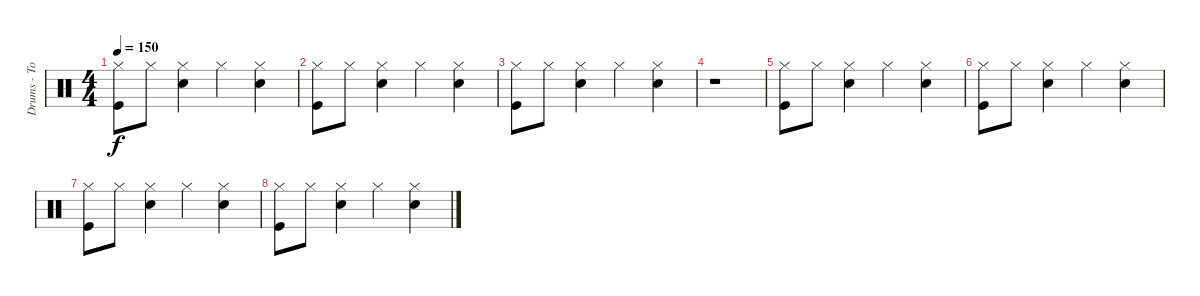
\track ("Drums - Tobi Häuser" "Drums - To") {instrument percussion}
\staff {score}
\articulation defaults
\ts (4 4)
\tempo 150
\clef neutral
\ks c
("Hi-Hat (closed)" "Kick (hit)").8{dy f} "Hi-Hat (closed)".8 ("Hi-Hat (closed)" "Snare (hit) 2").4 "Hi-Hat (closed)".4 ("Hi-Hat (closed)" "Snare (hit) 2").4 |
("Hi-Hat (closed)" "Kick (hit)").8 "Hi-Hat (closed)".8 ("Hi-Hat (closed)" "Snare (hit) 2").4 "Hi-Hat (closed)".4 ("Hi-Hat (closed)" "Snare (hit) 2").4 |
("Hi-Hat (closed)" "Kick (hit)").8 "Hi-Hat (closed)".8 ("Hi-Hat (closed)" "Snare (hit) 2").4 "Hi-Hat (closed)".4 ("Hi-Hat (closed)" "Snare (hit) 2").4 |
r.1 |
("Hi-Hat (closed)" "Kick (hit)").8 "Hi-Hat (closed)".8 ("Hi-Hat (closed)" "Snare (hit) 2").4 "Hi-Hat (closed)".4 ("Hi-Hat (closed)" "Snare (hit) 2").4 |
("Hi-Hat (closed)" "Kick (hit)").8 "Hi-Hat (closed)".8 ("Hi-Hat (closed)" "Snare (hit) 2").4 "Hi-Hat (closed)".4 ("Hi-Hat (closed)" "Snare (hit) 2").4 |
("Hi-Hat (closed)" "Kick (hit)").8 "Hi-Hat (closed)".8 ("Hi-Hat (closed)" "Snare (hit) 2").4 "Hi-Hat (closed)".4 ("Hi-Hat (closed)" "Snare (hit) 2").4 |
("Hi-Hat (closed)" "Kick (hit)").8 "Hi-Hat (closed)".8 ("Hi-Hat (closed)" "Snare (hit) 2").4 "Hi-Hat (closed)".4 ("Hi-Hat (closed)" "Snare (hit) 2").4
